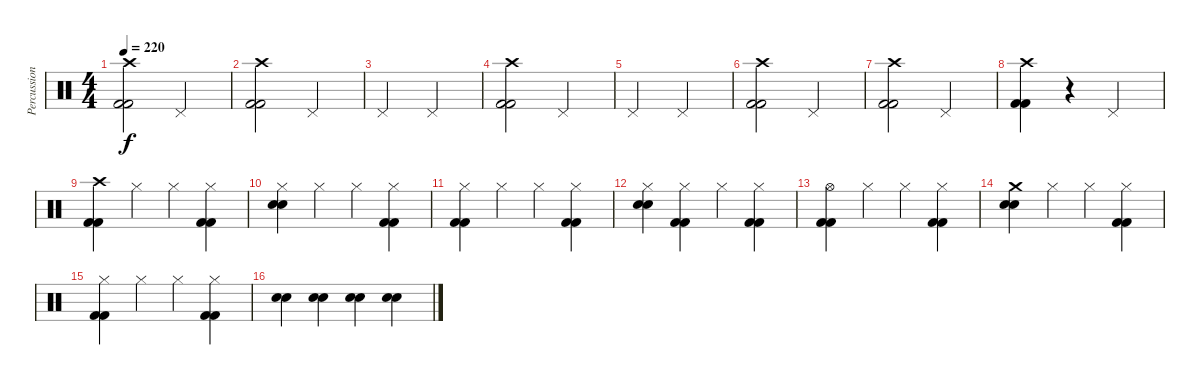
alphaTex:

\track ("Percussion" "Percussion") {instrument percussion}
\staff {score}
\articulation defaults
\ts (4 4)
\tempo 220
\clef neutral
\ks c
("Crash high (hit)" "Kick (hit) 2" "Kick (hit) 2").2{dy f} "Pedal Hi-Hat (hit)".2 |
("Crash high (hit)" "Kick (hit) 2" "Kick (hit) 2").2 "Pedal Hi-Hat (hit)".2 |
"Pedal Hi-Hat (hit)".2 "Pedal Hi-Hat (hit)".2 |
("Crash high (hit)" "Kick (hit) 2" "Kick (hit) 2").2 "Pedal Hi-Hat (hit)".2 |
"Pedal Hi-Hat (hit)".2 "Pedal Hi-Hat (hit)".2 |
("Crash high (hit)" "Kick (hit) 2" "Kick (hit) 2").2 "Pedal Hi-Hat (hit)".2 |
("Crash high (hit)" "Kick (hit) 2" "Kick (hit) 2").2 "Pedal Hi-Hat (hit)".2 |
("Crash high (hit)" "Kick (hit) 2" "Kick (hit) 2").4 r.4 "Pedal Hi-Hat (hit)".2 |
("Crash high (hit)" "Kick (hit) 2" "Kick (hit) 2").4 "Hi-Hat (closed)".4 "Hi-Hat (closed)".4 ("Hi-Hat (closed)" "Kick (hit) 2" "Kick (hit) 2").4 |
("Hi-Hat (closed)" "Electric Snare (hit)" "Electric Snare (hit)").4 "Hi-Hat (closed)".4 "Hi-Hat (closed)".4 ("Hi-Hat (closed)" "Kick (hit) 2" "Kick (hit) 2").4 |
("Hi-Hat (closed)" "Kick (hit) 2" "Kick (hit) 2").4 "Hi-Hat (closed)".4 "Hi-Hat (closed)".4 ("Hi-Hat (closed)" "Kick (hit) 2" "Kick (hit) 2").4 |
("Hi-Hat (closed)" "Electric Snare (hit)" "Electric Snare (hit)").4 ("Hi-Hat (closed)" "Kick (hit) 2" "Kick (hit) 2").4 "Hi-Hat (closed)".4 ("Hi-Hat (closed)" "Kick (hit) 2" "Kick (hit) 2").4 |
("Hi-Hat (open)" "Kick (hit) 2" "Kick (hit) 2").4 "Hi-Hat (closed)".4 "Hi-Hat (closed)".4 ("Hi-Hat (closed)" "Kick (hit) 2" "Kick (hit) 2").4 |
("Crash medium (hit)" "Electric Snare (hit)" "Electric Snare (hit)").4 "Hi-Hat (closed)".4 "Hi-Hat (closed)".4 ("Hi-Hat (closed)" "Kick (hit) 2" "Kick (hit) 2").4 |
("Hi-Hat (closed)" "Kick (hit) 2" "Kick (hit) 2").4 "Hi-Hat (closed)".4 "Hi-Hat (closed)".4 ("Hi-Hat (closed)" "Kick (hit) 2" "Kick (hit) 2").4 |
("Electric Snare (hit)" "Electric Snare (hit)").4 ("Electric Snare (hit)" "Electric Snare (hit)").4 ("Electric Snare (hit)" "Electric Snare (hit)").4 ("Electric Snare (hit)" "Electric Snare (hit)").4
